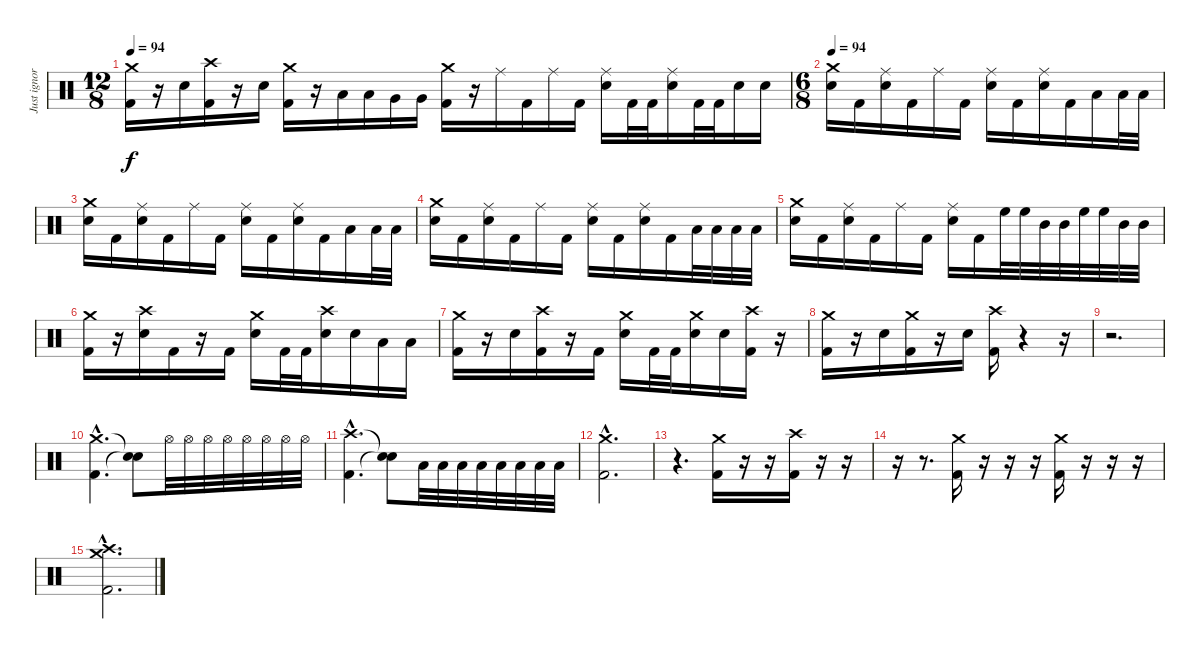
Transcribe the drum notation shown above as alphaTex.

\track ("Just ignore this track" "Just ignor") {instrument percussion}
\staff {score}
\articulation defaults
\ts (12 8)
\tempo 94
\clef neutral
\ks c
("Crash medium (hit)" "Kick (hit) 2").16{dy f} r.16 "Electric Snare (hit)".16 ("Crash high (hit)" "Kick (hit) 2").16 r.16 "Electric Snare (hit)".16 ("Crash medium (hit)" "Kick (hit) 2").16 r.16 "Low Tom (hit)".16 "Low Tom (hit)".16 "Very Low Tom (hit)".16 "Very Low Tom (hit)".16 ("Crash medium (hit)" "Kick (hit) 2").16 r.16 "Ride (middle)".16 "Kick (hit) 2".16 "Ride (middle)".16 "Kick (hit) 2".16 ("Ride (middle)" "Electric Snare (hit)").16 "Kick (hit) 2".32 "Kick (hit) 2".32 ("Ride (middle)" "Electric Snare (hit)").16 "Kick (hit) 2".32 "Kick (hit) 2".32 "Electric Snare (hit)".16 "Electric Snare (hit)".16 |
\ts (6 8)
\tempo 94
("Crash medium (hit)" "Electric Snare (hit)").16 "Kick (hit) 2".16 ("Ride (middle)" "Electric Snare (hit)").16 "Kick (hit) 2".16 "Ride (middle)".16 "Kick (hit) 2".16 ("Ride (middle)" "Electric Snare (hit)").16 "Kick (hit) 2".16 ("Ride (middle)" "Electric Snare (hit)").16 "Kick (hit) 2".16 "Low Tom (hit)".16 "Low Tom (hit)".32 "Low Tom (hit)".32 |
("Crash medium (hit)" "Electric Snare (hit)").16 "Kick (hit) 2".16 ("Ride (middle)" "Electric Snare (hit)").16 "Kick (hit) 2".16 "Ride (middle)".16 "Kick (hit) 2".16 ("Ride (middle)" "Electric Snare (hit)").16 "Kick (hit) 2".16 ("Ride (middle)" "Electric Snare (hit)").16 "Kick (hit) 2".16 "Low Tom (hit)".16 "Low Tom (hit)".32 "Low Tom (hit)".32 |
("Crash medium (hit)" "Electric Snare (hit)").16 "Kick (hit) 2".16 ("Ride (middle)" "Electric Snare (hit)").16 "Kick (hit) 2".16 "Ride (middle)".16 "Kick (hit) 2".16 ("Ride (middle)" "Electric Snare (hit)").16 "Kick (hit) 2".16 ("Ride (middle)" "Electric Snare (hit)").16 "Kick (hit) 2".16 "Low Tom (hit)".32 "Low Tom (hit)".32 "Low Tom (hit)".32 "Low Tom (hit)".32 |
("Crash medium (hit)" "Electric Snare (hit)").16 "Kick (hit) 2".16 ("Ride (middle)" "Electric Snare (hit)").16 "Kick (hit) 2".16 "Ride (middle)".16 "Kick (hit) 2".16 ("Ride (middle)" "Electric Snare (hit)").16 "Kick (hit) 2".16 "High Floor Tom (hit)".32 "High Floor Tom (hit)".32 "Mid Tom (hit)".32 "Mid Tom (hit)".32 "High Floor Tom (hit)".32 "High Floor Tom (hit)".32 "Mid Tom (hit)".32 "Mid Tom (hit)".32 |
("Crash medium (hit)" "Kick (hit) 2").16 r.16 ("Crash high (hit)" "Electric Snare (hit)").16 "Kick (hit) 2".16 r.16 "Kick (hit) 2".16 ("Crash medium (hit)" "Electric Snare (hit)").16 "Kick (hit) 2".32 "Kick (hit) 2".32 ("Crash high (hit)" "Electric Snare (hit)").16 "Electric Snare (hit)".16 "Low Tom (hit)".16 "Low Tom (hit)".16 |
("Crash medium (hit)" "Kick (hit) 2").16 r.16 "Electric Snare (hit)".16 ("Crash high (hit)" "Kick (hit) 2").16 r.16 "Kick (hit) 2".16 ("Crash medium (hit)" "Electric Snare (hit)").16 "Kick (hit) 2".32 "Kick (hit) 2".32 ("Crash medium (hit)" "Electric Snare (hit)").16 "Electric Snare (hit)".16 ("Crash high (hit)" "Kick (hit) 2").16 r.16 |
("Crash medium (hit)" "Kick (hit) 2").16 r.16 "Electric Snare (hit)".16 ("Crash medium (hit)" "Kick (hit) 2").16 r.16 "Electric Snare (hit)".16 ("Crash high (hit)" "Kick (hit) 2").16 r.4 r.16 |
r.2{d} |
("Crash medium (hit)"{hac} "Kick (hit) 2"{hac}).4{d} ("Snare (hit)"{t} "Snare (hit)"{t}).8 "Hi-Hat (open)".32 "Hi-Hat (open)".32 "Hi-Hat (open)".32 "Hi-Hat (open)".32 "Hi-Hat (open)".32 "Hi-Hat (open)".32 "Hi-Hat (open)".32 "Hi-Hat (open)".32 |
("Crash high (hit)"{hac} "Kick (hit) 2"{hac}).4{d} ("Snare (hit)"{t} "Snare (hit)"{t}).8 "Low Floor Tom (hit)".32 "Low Floor Tom (hit)".32 "Low Floor Tom (hit)".32 "Low Floor Tom (hit)".32 "Low Floor Tom (hit)".32 "Low Floor Tom (hit)".32 "Low Floor Tom (hit)".32 "Low Floor Tom (hit)".32 |
("Crash medium (hit)"{hac} "Kick (hit) 2"{hac}).2{d} |
r.4{d} ("Crash medium (hit)" "Kick (hit) 2").16 r.16 r.16 ("Crash high (hit)" "Kick (hit) 2").16 r.16 r.16 |
r.16 r.8{d} ("Crash medium (hit)" "Kick (hit) 2").16 r.16 r.16 r.16 ("Crash medium (hit)" "Kick (hit) 2").16 r.16 r.16 r.16 |
("Crash high (hit)"{hac} "Crash medium (hit)"{hac} "Kick (hit) 2"{hac}).2{d}
